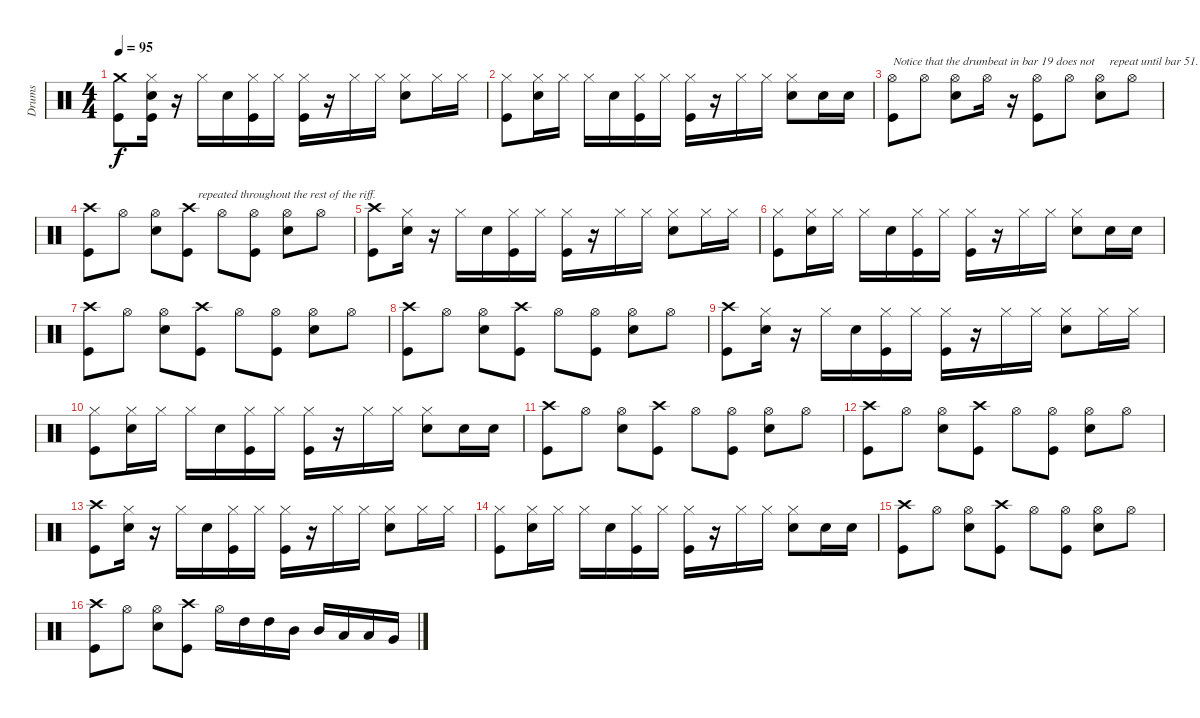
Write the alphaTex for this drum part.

\track ("Drums" "Drums") {instrument percussion}
\staff {score}
\articulation defaults
\ts (4 4)
\tempo 95
\clef neutral
\ks c
("Crash medium (hit)" "Kick (hit)").8{dy f} ("Hi-Hat (closed)" "Electric Snare (hit)" "Kick (hit)").16 r.16 "Hi-Hat (closed)".16 "Electric Snare (hit)".16 ("Hi-Hat (closed)" "Kick (hit)").16 "Hi-Hat (closed)".16 ("Hi-Hat (closed)" "Kick (hit)").16 r.16 "Hi-Hat (closed)".16 "Hi-Hat (closed)".16 ("Hi-Hat (closed)" "Electric Snare (hit)").8 "Hi-Hat (closed)".16 "Hi-Hat (closed)".16 |
("Hi-Hat (closed)" "Kick (hit)").8 ("Hi-Hat (closed)" "Electric Snare (hit)").16 "Hi-Hat (closed)".16 "Hi-Hat (closed)".16 "Electric Snare (hit)".16 ("Hi-Hat (closed)" "Kick (hit)").16 "Hi-Hat (closed)".16 ("Hi-Hat (closed)" "Kick (hit)").16 r.16 "Hi-Hat (closed)".16 "Hi-Hat (closed)".16 ("Hi-Hat (closed)" "Electric Snare (hit)").8 "Electric Snare (hit)".16 "Electric Snare (hit)".16 |
("Hi-Hat (open)" "Kick (hit)").8{txt "Notice that the drumbeat in bar 19 does not"} "Hi-Hat (open)".8 ("Hi-Hat (open)" "Electric Snare (hit)").8 "Hi-Hat (open)".16 r.16 ("Hi-Hat (open)" "Kick (hit)").8 "Hi-Hat (open)".8 ("Hi-Hat (open)" "Electric Snare (hit)").8{txt "   repeat until bar 51. After that it is"} "Hi-Hat (open)".8 |
("Crash high (hit)" "Kick (hit)").8 "Hi-Hat (open)".8 ("Hi-Hat (open)" "Electric Snare (hit)").8 ("Crash high (hit)" "Kick (hit)").8{txt "   repeated throughout the rest of the riff."} "Hi-Hat (open)".8 ("Hi-Hat (open)" "Kick (hit)").8 ("Hi-Hat (open)" "Electric Snare (hit)").8 "Hi-Hat (open)".8 |
("Crash high (hit)" "Kick (hit)").8 ("Hi-Hat (closed)" "Electric Snare (hit)").16 r.16 "Hi-Hat (closed)".16 "Electric Snare (hit)".16 ("Hi-Hat (closed)" "Kick (hit)").16 "Hi-Hat (closed)".16 ("Hi-Hat (closed)" "Kick (hit)").16 r.16 "Hi-Hat (closed)".16 "Hi-Hat (closed)".16 ("Hi-Hat (closed)" "Electric Snare (hit)").8 "Hi-Hat (closed)".16 "Hi-Hat (closed)".16 |
("Hi-Hat (closed)" "Kick (hit)").8 ("Hi-Hat (closed)" "Electric Snare (hit)").16 "Hi-Hat (closed)".16 "Hi-Hat (closed)".16 "Electric Snare (hit)".16 ("Hi-Hat (closed)" "Kick (hit)").16 "Hi-Hat (closed)".16 ("Hi-Hat (closed)" "Kick (hit)").16 r.16 "Hi-Hat (closed)".16 "Hi-Hat (closed)".16 ("Hi-Hat (closed)" "Electric Snare (hit)").8 "Electric Snare (hit)".16 "Electric Snare (hit)".16 |
("Crash high (hit)" "Kick (hit)").8 "Hi-Hat (open)".8 ("Hi-Hat (open)" "Electric Snare (hit)").8 ("Crash high (hit)" "Kick (hit)").8 "Hi-Hat (open)".8 ("Hi-Hat (open)" "Kick (hit)").8 ("Hi-Hat (open)" "Electric Snare (hit)").8 "Hi-Hat (open)".8 |
("Crash high (hit)" "Kick (hit)").8 "Hi-Hat (open)".8 ("Hi-Hat (open)" "Electric Snare (hit)").8 ("Crash high (hit)" "Kick (hit)").8 "Hi-Hat (open)".8 ("Hi-Hat (open)" "Kick (hit)").8 ("Hi-Hat (open)" "Electric Snare (hit)").8 "Hi-Hat (open)".8 |
("Crash high (hit)" "Kick (hit)").8 ("Hi-Hat (closed)" "Electric Snare (hit)").16 r.16 "Hi-Hat (closed)".16 "Electric Snare (hit)".16 ("Hi-Hat (closed)" "Kick (hit)").16 "Hi-Hat (closed)".16 ("Hi-Hat (closed)" "Kick (hit)").16 r.16 "Hi-Hat (closed)".16 "Hi-Hat (closed)".16 ("Hi-Hat (closed)" "Electric Snare (hit)").8 "Hi-Hat (closed)".16 "Hi-Hat (closed)".16 |
("Hi-Hat (closed)" "Kick (hit)").8 ("Hi-Hat (closed)" "Electric Snare (hit)").16 "Hi-Hat (closed)".16 "Hi-Hat (closed)".16 "Electric Snare (hit)".16 ("Hi-Hat (closed)" "Kick (hit)").16 "Hi-Hat (closed)".16 ("Hi-Hat (closed)" "Kick (hit)").16 r.16 "Hi-Hat (closed)".16 "Hi-Hat (closed)".16 ("Hi-Hat (closed)" "Electric Snare (hit)").8 "Electric Snare (hit)".16 "Electric Snare (hit)".16 |
("Crash high (hit)" "Kick (hit)").8 "Hi-Hat (open)".8 ("Hi-Hat (open)" "Electric Snare (hit)").8 ("Crash high (hit)" "Kick (hit)").8 "Hi-Hat (open)".8 ("Hi-Hat (open)" "Kick (hit)").8 ("Hi-Hat (open)" "Electric Snare (hit)").8 "Hi-Hat (open)".8 |
("Crash high (hit)" "Kick (hit)").8 "Hi-Hat (open)".8 ("Hi-Hat (open)" "Electric Snare (hit)").8 ("Crash high (hit)" "Kick (hit)").8 "Hi-Hat (open)".8 ("Hi-Hat (open)" "Kick (hit)").8 ("Hi-Hat (open)" "Electric Snare (hit)").8 "Hi-Hat (open)".8 |
("Crash high (hit)" "Kick (hit)").8 ("Hi-Hat (closed)" "Electric Snare (hit)").16 r.16 "Hi-Hat (closed)".16 "Electric Snare (hit)".16 ("Hi-Hat (closed)" "Kick (hit)").16 "Hi-Hat (closed)".16 ("Hi-Hat (closed)" "Kick (hit)").16 r.16 "Hi-Hat (closed)".16 "Hi-Hat (closed)".16 ("Hi-Hat (closed)" "Electric Snare (hit)").8 "Hi-Hat (closed)".16 "Hi-Hat (closed)".16 |
("Hi-Hat (closed)" "Kick (hit)").8 ("Hi-Hat (closed)" "Electric Snare (hit)").16 "Hi-Hat (closed)".16 "Hi-Hat (closed)".16 "Electric Snare (hit)".16 ("Hi-Hat (closed)" "Kick (hit)").16 "Hi-Hat (closed)".16 ("Hi-Hat (closed)" "Kick (hit)").16 r.16 "Hi-Hat (closed)".16 "Hi-Hat (closed)".16 ("Hi-Hat (closed)" "Electric Snare (hit)").8 "Electric Snare (hit)".16 "Electric Snare (hit)".16 |
("Crash high (hit)" "Kick (hit)").8 "Hi-Hat (open)".8 ("Hi-Hat (open)" "Electric Snare (hit)").8 ("Crash high (hit)" "Kick (hit)").8 "Hi-Hat (open)".8 ("Hi-Hat (open)" "Kick (hit)").8 ("Hi-Hat (open)" "Electric Snare (hit)").8 "Hi-Hat (open)".8 |
("Crash high (hit)" "Kick (hit)").8 "Hi-Hat (open)".8 ("Hi-Hat (open)" "Electric Snare (hit)").8 ("Crash high (hit)" "Kick (hit)").8 "Hi-Hat (open)".16 "High Tom (hit)".16 "High Tom (hit)".16 "Mid Tom (hit)".16 "Mid Tom (hit)".16 "Low Tom (hit)".16 "Low Tom (hit)".16 "Very Low Tom (hit)".16
